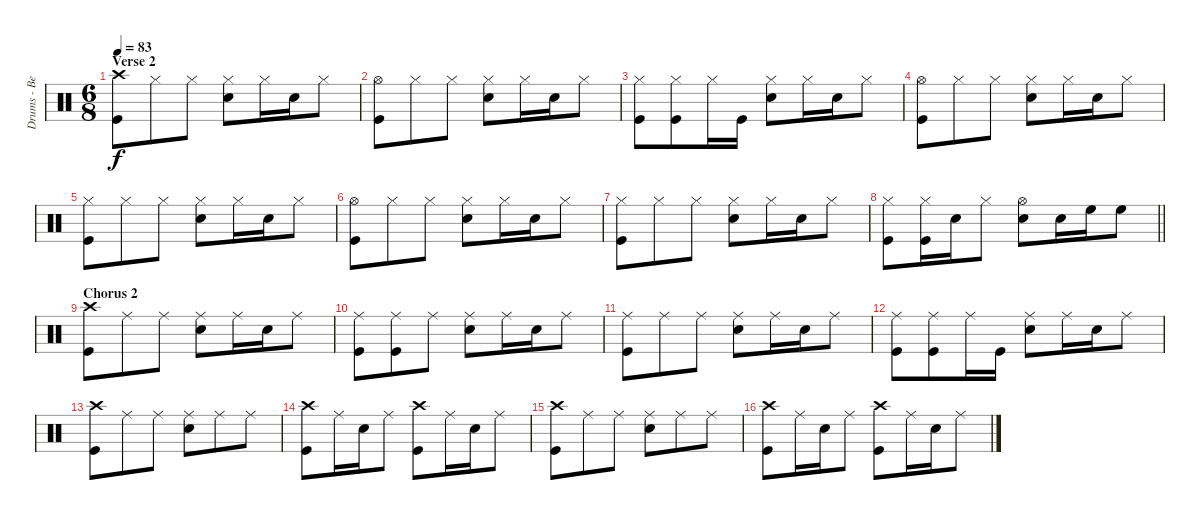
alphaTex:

\track ("Drums - Ben Johnston" "Drums - Be") {instrument percussion}
\staff {score}
\articulation defaults
\ts (6 8)
\section ("" "Verse 2")
\tempo 83
\clef neutral
\ks aminor
("Crash high (hit)" "Kick (hit)").8{dy f} "Hi-Hat (closed)".8 "Hi-Hat (closed)".8 ("Hi-Hat (closed)" "Snare (hit) 2").8 "Hi-Hat (closed)".16 "Snare (hit) 2".16 "Hi-Hat (closed)".8 |
("Hi-Hat (open)" "Kick (hit)").8 "Hi-Hat (closed)".8 "Hi-Hat (closed)".8 ("Hi-Hat (closed)" "Snare (hit) 2").8 "Hi-Hat (closed)".16 "Snare (hit) 2".16 "Hi-Hat (closed)".8 |
("Hi-Hat (closed)" "Kick (hit)").8 ("Hi-Hat (closed)" "Kick (hit)").8 "Hi-Hat (closed)".16 "Kick (hit)".16 ("Hi-Hat (closed)" "Snare (hit) 2").8 "Hi-Hat (closed)".16 "Snare (hit) 2".16 "Hi-Hat (closed)".8 |
("Hi-Hat (open)" "Kick (hit)").8 "Hi-Hat (closed)".8 "Hi-Hat (closed)".8 ("Hi-Hat (closed)" "Snare (hit) 2").8 "Hi-Hat (closed)".16 "Snare (hit) 2".16 "Hi-Hat (closed)".8 |
("Hi-Hat (closed)" "Kick (hit)").8 "Hi-Hat (closed)".8 "Hi-Hat (closed)".8 ("Hi-Hat (closed)" "Snare (hit) 2").8 "Hi-Hat (closed)".16 "Snare (hit) 2".16 "Hi-Hat (closed)".8 |
("Hi-Hat (open)" "Kick (hit)").8 "Hi-Hat (closed)".8 "Hi-Hat (closed)".8 ("Hi-Hat (closed)" "Snare (hit) 2").8 "Hi-Hat (closed)".16 "Snare (hit) 2".16 "Hi-Hat (closed)".8 |
("Hi-Hat (closed)" "Kick (hit)").8 "Hi-Hat (closed)".8 "Hi-Hat (closed)".8 ("Hi-Hat (closed)" "Snare (hit) 2").8 "Hi-Hat (closed)".16 "Snare (hit) 2".16 "Hi-Hat (closed)".8 |
\barLineRight lightlight
("Hi-Hat (closed)" "Kick (hit)").8 ("Hi-Hat (closed)" "Kick (hit)").16 "Snare (hit) 2".16 "Hi-Hat (closed)".8 ("Hi-Hat (open)" "Snare (hit) 2").8 "Snare (hit) 2".16 "High Floor Tom (hit)".16 "High Floor Tom (hit)".8 |
\section ("" "Chorus 2")
("Crash high (hit)" "Kick (hit)").8 "Ride (middle)".8 "Ride (middle)".8 ("Ride (middle)" "Snare (hit) 2").8 "Ride (middle)".16 "Snare (hit) 2".16 "Ride (middle)".8 |
("Ride (middle)" "Kick (hit)").8 ("Ride (middle)" "Kick (hit)").8 "Ride (middle)".8 ("Ride (middle)" "Snare (hit) 2").8 "Ride (middle)".16 "Snare (hit) 2".16 "Ride (middle)".8 |
("Ride (middle)" "Kick (hit)").8 "Ride (middle)".8 "Ride (middle)".8 ("Ride (middle)" "Snare (hit) 2").8 "Ride (middle)".16 "Snare (hit) 2".16 "Ride (middle)".8 |
("Ride (middle)" "Kick (hit)").8 ("Ride (middle)" "Kick (hit)").8 "Ride (middle)".16 "Kick (hit)".16 ("Ride (middle)" "Snare (hit) 2").8 "Ride (middle)".16 "Snare (hit) 2".16 "Ride (middle)".8 |
("Crash high (hit)" "Kick (hit)").8 "Ride (middle)".8 "Ride (middle)".8 ("Ride (middle)" "Snare (hit) 2").8 "Ride (middle)".8 "Ride (middle)".8 |
("Crash high (hit)" "Kick (hit)").8 "Ride (middle)".16 "Snare (hit) 2".16 "Ride (middle)".8 ("Crash high (hit)" "Kick (hit)").8 "Ride (middle)".16 "Snare (hit) 2".16 "Ride (middle)".8 |
("Crash high (hit)" "Kick (hit)").8 "Ride (middle)".8 "Ride (middle)".8 ("Ride (middle)" "Snare (hit) 2").8 "Ride (middle)".8 "Ride (middle)".8 |
("Crash high (hit)" "Kick (hit)").8 "Ride (middle)".16 "Snare (hit) 2".16 "Ride (middle)".8 ("Crash high (hit)" "Kick (hit)").8 "Ride (middle)".16 "Snare (hit) 2".16 "Ride (middle)".8
